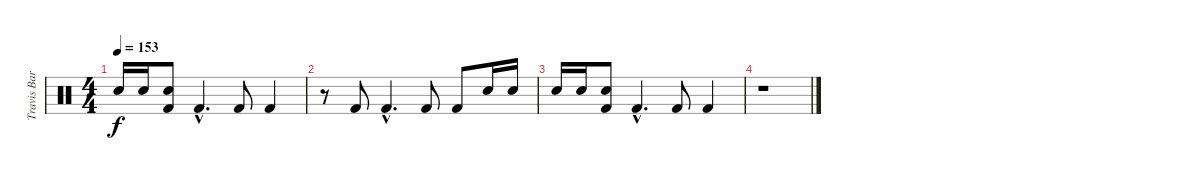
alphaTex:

\track ("Travis Barker" "Travis Bar") {instrument percussion}
\staff {score}
\articulation defaults
\ts (4 4)
\tempo 153
\clef neutral
\ks c "Electric Snare (hit)".16{dy f} "Electric Snare (hit)".16
("Electric Snare (hit)" "Kick (hit) 2").8 "Kick (hit) 2"{hac}.4{d} "Kick (hit) 2".8 "Kick (hit) 2".4 |
r.8 "Kick (hit) 2".8 "Kick (hit) 2"{hac}.4{d} "Kick (hit) 2".8 "Kick (hit) 2".8 "Electric Snare (hit)".16 "Electric Snare (hit)".16 |
"Electric Snare (hit)".16 "Electric Snare (hit)".16 ("Electric Snare (hit)" "Kick (hit) 2").8 "Kick (hit) 2"{hac}.4{d} "Kick (hit) 2".8 "Kick (hit) 2".4 |
r.1
